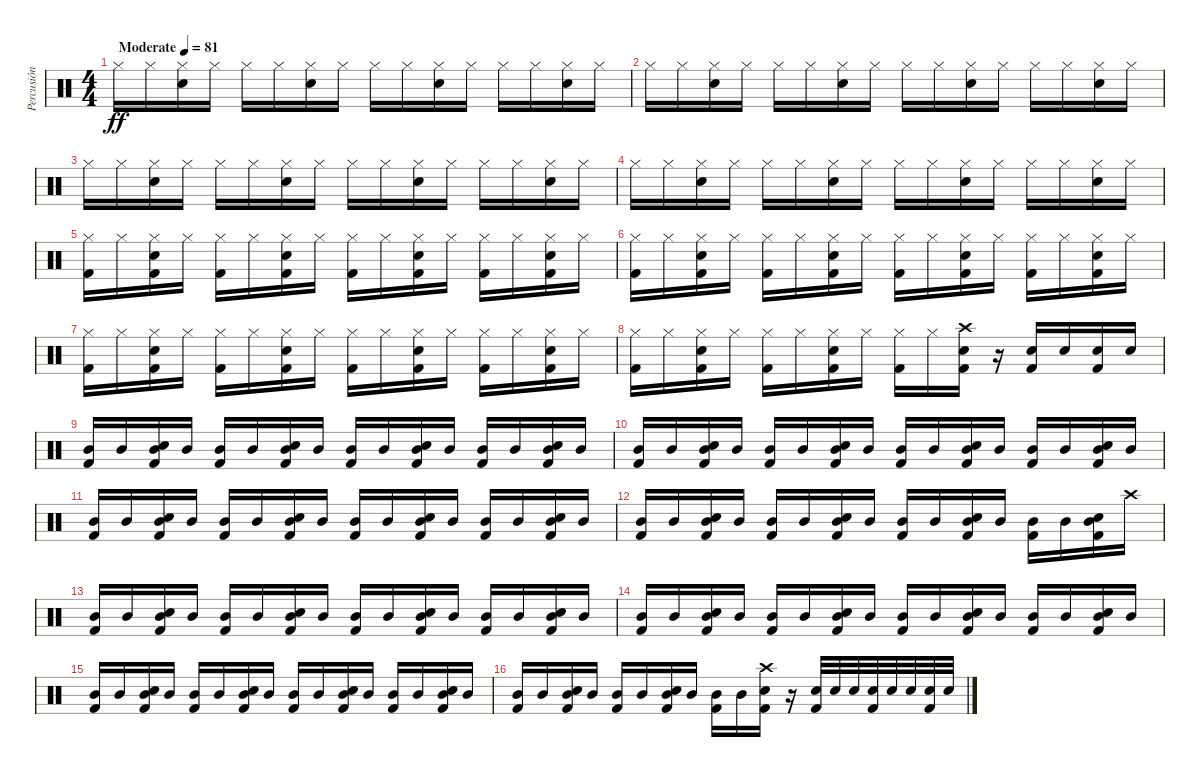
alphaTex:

\track ("Percusión" "Percusión") {instrument percussion}
\staff {score}
\articulation defaults
\ts (4 4)
\tempo (81 "Moderate")
\clef neutral
\ks c "Hi-Hat (closed)".16{dy ff} "Hi-Hat (closed)".16
("Electric Snare (hit)" "Hi-Hat (closed)").16 "Hi-Hat (closed)".16 "Hi-Hat (closed)".16 "Hi-Hat (closed)".16 ("Electric Snare (hit)" "Hi-Hat (closed)").16 "Hi-Hat (closed)".16 "Hi-Hat (closed)".16 "Hi-Hat (closed)".16 ("Electric Snare (hit)" "Hi-Hat (closed)").16 "Hi-Hat (closed)".16 "Hi-Hat (closed)".16 "Hi-Hat (closed)".16 ("Electric Snare (hit)" "Hi-Hat (closed)").16 "Hi-Hat (closed)".16 |
"Hi-Hat (closed)".16 "Hi-Hat (closed)".16 ("Electric Snare (hit)" "Hi-Hat (closed)").16 "Hi-Hat (closed)".16 "Hi-Hat (closed)".16 "Hi-Hat (closed)".16 ("Electric Snare (hit)" "Hi-Hat (closed)").16 "Hi-Hat (closed)".16 "Hi-Hat (closed)".16 "Hi-Hat (closed)".16 ("Electric Snare (hit)" "Hi-Hat (closed)").16 "Hi-Hat (closed)".16 "Hi-Hat (closed)".16 "Hi-Hat (closed)".16 ("Electric Snare (hit)" "Hi-Hat (closed)").16 "Hi-Hat (closed)".16 |
"Hi-Hat (closed)".16 "Hi-Hat (closed)".16 ("Electric Snare (hit)" "Hi-Hat (closed)").16 "Hi-Hat (closed)".16 "Hi-Hat (closed)".16 "Hi-Hat (closed)".16 ("Electric Snare (hit)" "Hi-Hat (closed)").16 "Hi-Hat (closed)".16 "Hi-Hat (closed)".16 "Hi-Hat (closed)".16 ("Electric Snare (hit)" "Hi-Hat (closed)").16 "Hi-Hat (closed)".16 "Hi-Hat (closed)".16 "Hi-Hat (closed)".16 ("Electric Snare (hit)" "Hi-Hat (closed)").16 "Hi-Hat (closed)".16 |
"Hi-Hat (closed)".16 "Hi-Hat (closed)".16 ("Electric Snare (hit)" "Hi-Hat (closed)").16 "Hi-Hat (closed)".16 "Hi-Hat (closed)".16 "Hi-Hat (closed)".16 ("Electric Snare (hit)" "Hi-Hat (closed)").16 "Hi-Hat (closed)".16 "Hi-Hat (closed)".16 "Hi-Hat (closed)".16 ("Electric Snare (hit)" "Hi-Hat (closed)").16 "Hi-Hat (closed)".16 "Hi-Hat (closed)".16 "Hi-Hat (closed)".16 ("Electric Snare (hit)" "Hi-Hat (closed)").16 "Hi-Hat (closed)".16 |
("Kick (hit) 2" "Hi-Hat (closed)").16 "Hi-Hat (closed)".16 ("Kick (hit) 2" "Electric Snare (hit)" "Hi-Hat (closed)").16 "Hi-Hat (closed)".16 ("Kick (hit) 2" "Hi-Hat (closed)").16 "Hi-Hat (closed)".16 ("Kick (hit) 2" "Electric Snare (hit)" "Hi-Hat (closed)").16 "Hi-Hat (closed)".16 ("Kick (hit) 2" "Hi-Hat (closed)").16 "Hi-Hat (closed)".16 ("Kick (hit) 2" "Electric Snare (hit)" "Hi-Hat (closed)").16 "Hi-Hat (closed)".16 ("Kick (hit) 2" "Hi-Hat (closed)").16 "Hi-Hat (closed)".16 ("Kick (hit) 2" "Electric Snare (hit)" "Hi-Hat (closed)").16 "Hi-Hat (closed)".16 |
("Kick (hit) 2" "Hi-Hat (closed)").16 "Hi-Hat (closed)".16 ("Kick (hit) 2" "Electric Snare (hit)" "Hi-Hat (closed)").16 "Hi-Hat (closed)".16 ("Kick (hit) 2" "Hi-Hat (closed)").16 "Hi-Hat (closed)".16 ("Kick (hit) 2" "Electric Snare (hit)" "Hi-Hat (closed)").16 "Hi-Hat (closed)".16 ("Kick (hit) 2" "Hi-Hat (closed)").16 "Hi-Hat (closed)".16 ("Kick (hit) 2" "Electric Snare (hit)" "Hi-Hat (closed)").16 "Hi-Hat (closed)".16 ("Kick (hit) 2" "Hi-Hat (closed)").16 "Hi-Hat (closed)".16 ("Kick (hit) 2" "Electric Snare (hit)" "Hi-Hat (closed)").16 "Hi-Hat (closed)".16 |
("Kick (hit) 2" "Hi-Hat (closed)").16 "Hi-Hat (closed)".16 ("Kick (hit) 2" "Electric Snare (hit)" "Hi-Hat (closed)").16 "Hi-Hat (closed)".16 ("Kick (hit) 2" "Hi-Hat (closed)").16 "Hi-Hat (closed)".16 ("Kick (hit) 2" "Electric Snare (hit)" "Hi-Hat (closed)").16 "Hi-Hat (closed)".16 ("Kick (hit) 2" "Hi-Hat (closed)").16 "Hi-Hat (closed)".16 ("Kick (hit) 2" "Electric Snare (hit)" "Hi-Hat (closed)").16 "Hi-Hat (closed)".16 ("Kick (hit) 2" "Hi-Hat (closed)").16 "Hi-Hat (closed)".16 ("Kick (hit) 2" "Electric Snare (hit)" "Hi-Hat (closed)").16 "Hi-Hat (closed)".16 |
("Kick (hit) 2" "Hi-Hat (closed)").16 "Hi-Hat (closed)".16 ("Kick (hit) 2" "Electric Snare (hit)" "Hi-Hat (closed)").16 "Hi-Hat (closed)".16 ("Kick (hit) 2" "Hi-Hat (closed)").16 "Hi-Hat (closed)".16 ("Kick (hit) 2" "Electric Snare (hit)" "Hi-Hat (closed)").16 "Hi-Hat (closed)".16 ("Kick (hit) 2" "Hi-Hat (closed)").16 "Hi-Hat (closed)".16 ("Kick (hit) 2" "Electric Snare (hit)" "Crash high (hit)").16 r.16 ("Kick (hit) 2" "Electric Snare (hit)").16 "Electric Snare (hit)".16 ("Kick (hit) 2" "Electric Snare (hit)").16 "Electric Snare (hit)".16 |
("Kick (hit) 2" "Mid Tom (hit)").16 "Mid Tom (hit)".16 ("Kick (hit) 2" "Electric Snare (hit)" "Mid Tom (hit)").16 "Mid Tom (hit)".16 ("Kick (hit) 2" "Mid Tom (hit)").16 "Mid Tom (hit)".16 ("Kick (hit) 2" "Electric Snare (hit)" "Mid Tom (hit)").16 "Mid Tom (hit)".16 ("Kick (hit) 2" "Mid Tom (hit)").16 "Mid Tom (hit)".16 ("Kick (hit) 2" "Electric Snare (hit)" "Mid Tom (hit)").16 "Mid Tom (hit)".16 ("Kick (hit) 2" "Mid Tom (hit)").16 "Mid Tom (hit)".16 ("Kick (hit) 2" "Electric Snare (hit)" "Mid Tom (hit)").16 "Mid Tom (hit)".16 |
("Kick (hit) 2" "Mid Tom (hit)").16 "Mid Tom (hit)".16 ("Kick (hit) 2" "Electric Snare (hit)" "Mid Tom (hit)").16 "Mid Tom (hit)".16 ("Kick (hit) 2" "Mid Tom (hit)").16 "Mid Tom (hit)".16 ("Kick (hit) 2" "Electric Snare (hit)" "Mid Tom (hit)").16 "Mid Tom (hit)".16 ("Kick (hit) 2" "Mid Tom (hit)").16 "Mid Tom (hit)".16 ("Kick (hit) 2" "Electric Snare (hit)" "Mid Tom (hit)").16 "Mid Tom (hit)".16 ("Kick (hit) 2" "Mid Tom (hit)").16 "Mid Tom (hit)".16 ("Kick (hit) 2" "Electric Snare (hit)" "Mid Tom (hit)").16 "Mid Tom (hit)".16 |
("Kick (hit) 2" "Mid Tom (hit)").16 "Mid Tom (hit)".16 ("Kick (hit) 2" "Electric Snare (hit)" "Mid Tom (hit)").16 "Mid Tom (hit)".16 ("Kick (hit) 2" "Mid Tom (hit)").16 "Mid Tom (hit)".16 ("Kick (hit) 2" "Electric Snare (hit)" "Mid Tom (hit)").16 "Mid Tom (hit)".16 ("Kick (hit) 2" "Mid Tom (hit)").16 "Mid Tom (hit)".16 ("Kick (hit) 2" "Electric Snare (hit)" "Mid Tom (hit)").16 "Mid Tom (hit)".16 ("Kick (hit) 2" "Mid Tom (hit)").16 "Mid Tom (hit)".16 ("Kick (hit) 2" "Electric Snare (hit)" "Mid Tom (hit)").16 "Mid Tom (hit)".16 |
("Kick (hit) 2" "Mid Tom (hit)").16 "Mid Tom (hit)".16 ("Kick (hit) 2" "Electric Snare (hit)" "Mid Tom (hit)").16 "Mid Tom (hit)".16 ("Kick (hit) 2" "Mid Tom (hit)").16 "Mid Tom (hit)".16 ("Kick (hit) 2" "Electric Snare (hit)" "Mid Tom (hit)").16 "Mid Tom (hit)".16 ("Kick (hit) 2" "Mid Tom (hit)").16 "Mid Tom (hit)".16 ("Kick (hit) 2" "Electric Snare (hit)" "Mid Tom (hit)").16 "Mid Tom (hit)".16 ("Kick (hit) 2" "Mid Tom (hit)").16 "Mid Tom (hit)".16 ("Kick (hit) 2" "Electric Snare (hit)" "Mid Tom (hit)").16 "Crash high (hit)".16 |
("Kick (hit) 2" "Mid Tom (hit)").16 "Mid Tom (hit)".16 ("Kick (hit) 2" "Electric Snare (hit)" "Mid Tom (hit)").16 "Mid Tom (hit)".16 ("Kick (hit) 2" "Mid Tom (hit)").16 "Mid Tom (hit)".16 ("Kick (hit) 2" "Electric Snare (hit)" "Mid Tom (hit)").16 "Mid Tom (hit)".16 ("Kick (hit) 2" "Mid Tom (hit)").16 "Mid Tom (hit)".16 ("Kick (hit) 2" "Electric Snare (hit)" "Mid Tom (hit)").16 "Mid Tom (hit)".16 ("Kick (hit) 2" "Mid Tom (hit)").16 "Mid Tom (hit)".16 ("Kick (hit) 2" "Electric Snare (hit)" "Mid Tom (hit)").16 "Mid Tom (hit)".16 |
("Kick (hit) 2" "Mid Tom (hit)").16 "Mid Tom (hit)".16 ("Kick (hit) 2" "Electric Snare (hit)" "Mid Tom (hit)").16 "Mid Tom (hit)".16 ("Kick (hit) 2" "Mid Tom (hit)").16 "Mid Tom (hit)".16 ("Kick (hit) 2" "Electric Snare (hit)" "Mid Tom (hit)").16 "Mid Tom (hit)".16 ("Kick (hit) 2" "Mid Tom (hit)").16 "Mid Tom (hit)".16 ("Kick (hit) 2" "Electric Snare (hit)" "Mid Tom (hit)").16 "Mid Tom (hit)".16 ("Kick (hit) 2" "Mid Tom (hit)").16 "Mid Tom (hit)".16 ("Kick (hit) 2" "Electric Snare (hit)" "Mid Tom (hit)").16 "Mid Tom (hit)".16 |
("Kick (hit) 2" "Mid Tom (hit)").16 "Mid Tom (hit)".16 ("Kick (hit) 2" "Electric Snare (hit)" "Mid Tom (hit)").16 "Mid Tom (hit)".16 ("Kick (hit) 2" "Mid Tom (hit)").16 "Mid Tom (hit)".16 ("Kick (hit) 2" "Electric Snare (hit)" "Mid Tom (hit)").16 "Mid Tom (hit)".16 ("Kick (hit) 2" "Mid Tom (hit)").16 "Mid Tom (hit)".16 ("Kick (hit) 2" "Electric Snare (hit)" "Mid Tom (hit)").16 "Mid Tom (hit)".16 ("Kick (hit) 2" "Mid Tom (hit)").16 "Mid Tom (hit)".16 ("Kick (hit) 2" "Electric Snare (hit)" "Mid Tom (hit)").16 "Mid Tom (hit)".16 |
("Kick (hit) 2" "Mid Tom (hit)").16 "Mid Tom (hit)".16 ("Kick (hit) 2" "Electric Snare (hit)" "Mid Tom (hit)").16 "Mid Tom (hit)".16 ("Kick (hit) 2" "Mid Tom (hit)").16 "Mid Tom (hit)".16 ("Kick (hit) 2" "Electric Snare (hit)" "Mid Tom (hit)").16 "Mid Tom (hit)".16 ("Kick (hit) 2" "Mid Tom (hit)").16 "Mid Tom (hit)".16 ("Kick (hit) 2" "Electric Snare (hit)" "Crash high (hit)").16 r.16 ("Kick (hit) 2" "Electric Snare (hit)").32 "Electric Snare (hit)".32 "Electric Snare (hit)".32 ("Kick (hit) 2" "Electric Snare (hit)").32 "Electric Snare (hit)".32 "Electric Snare (hit)".32 ("Kick (hit) 2" "Electric Snare (hit)").32 "Electric Snare (hit)".32
